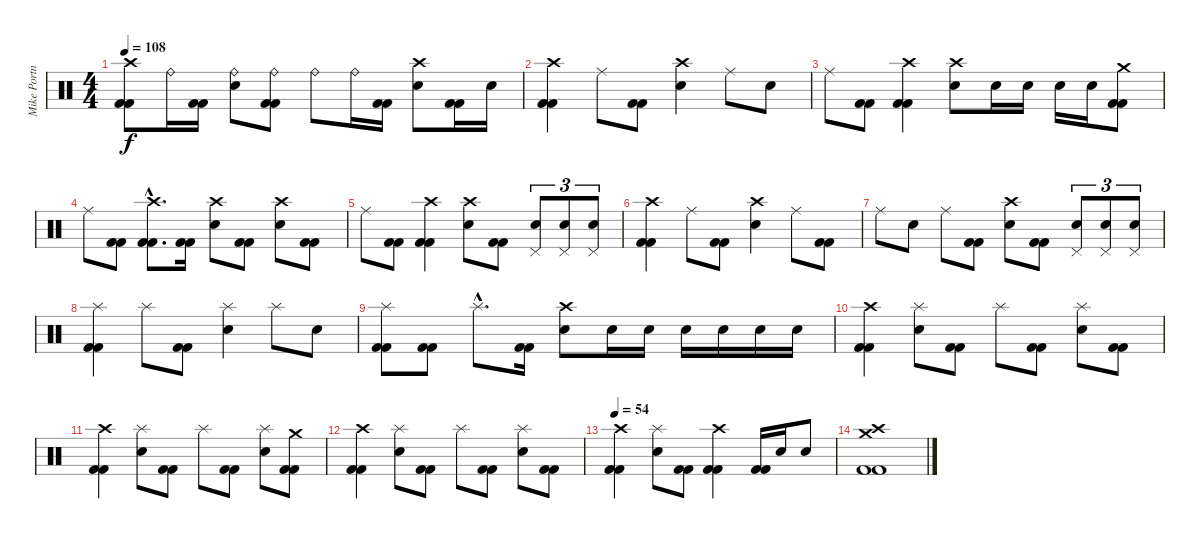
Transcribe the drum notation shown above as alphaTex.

\track ("Mike Portnoy - Drums" "Mike Portn") {instrument percussion}
\staff {score}
\articulation defaults
\ts (4 4)
\tempo 108
\clef neutral
\ks c
("Crash high (hit)" "Kick (hit) 2" "Kick (hit) 2").8{dy f} "Ride (bell)".16 ("Kick (hit) 2" "Kick (hit) 2").16 ("Ride (bell)" "Snare (hit) 2").8 ("Ride (bell)" "Kick (hit) 2" "Kick (hit) 2").8 "Ride (bell)".8 "Ride (bell)".16 ("Kick (hit) 2" "Kick (hit) 2").16 ("Crash high (hit)" "Snare (hit) 2").8 ("Kick (hit) 2" "Kick (hit) 2").16 "Snare (hit) 2".16 |
("Crash high (hit)" "Kick (hit) 2" "Kick (hit) 2").4 "Ride (middle)".8 ("Kick (hit) 2" "Kick (hit) 2").8 ("Crash high (hit)" "Snare (hit) 2").4 "Ride (middle)".8 "Snare (hit) 2".8 |
"Ride (middle)".8 ("Kick (hit) 2" "Kick (hit) 2").8 ("Crash high (hit)" "Kick (hit) 2" "Kick (hit) 2").4 ("Crash high (hit)" "Snare (hit) 2").8 "Snare (hit) 2".16 "Snare (hit) 2".16 "Snare (hit) 2".16 "Snare (hit) 2".16 ("Crash medium (hit)" "Kick (hit) 2" "Kick (hit) 2").8 |
"Ride (middle)".8 ("Kick (hit) 2" "Kick (hit) 2").8 ("Crash high (hit)"{hac} "Kick (hit) 2"{hac} "Kick (hit) 2"{hac}).8{d} ("Kick (hit) 2" "Kick (hit) 2").16 ("Crash high (hit)" "Snare (hit) 2").8 ("Kick (hit) 2" "Kick (hit) 2").8 ("Crash high (hit)" "Snare (hit) 2").8 ("Kick (hit) 2" "Kick (hit) 2").8 |
"Ride (middle)".8 ("Kick (hit) 2" "Kick (hit) 2").8 ("Crash high (hit)" "Kick (hit) 2" "Kick (hit) 2").4 ("Crash high (hit)" "Snare (hit) 2").8 ("Kick (hit) 2" "Kick (hit) 2").8 ("Pedal Hi-Hat (hit)" "Snare (hit) 2").8{tu (3 2)} ("Pedal Hi-Hat (hit)" "Snare (hit) 2").8{tu (3 2)} ("Pedal Hi-Hat (hit)" "Snare (hit) 2").8{tu (3 2)} |
("Crash high (hit)" "Kick (hit) 2" "Kick (hit) 2").4 "Ride (middle)".8 ("Kick (hit) 2" "Kick (hit) 2").8 ("Crash high (hit)" "Snare (hit) 2").4 "Ride (middle)".8 ("Kick (hit) 2" "Kick (hit) 2").8 |
"Ride (middle)".8 "Snare (hit) 2".8 "Ride (middle)".8 ("Kick (hit) 2" "Kick (hit) 2").8 ("Crash high (hit)" "Snare (hit) 2").8 ("Kick (hit) 2" "Kick (hit) 2").8 ("Pedal Hi-Hat (hit)" "Snare (hit) 2").8{tu (3 2)} ("Pedal Hi-Hat (hit)" "Snare (hit) 2").8{tu (3 2)} ("Pedal Hi-Hat (hit)" "Snare (hit) 2").8{tu (3 2)} |
("Splash (hit)" "Kick (hit) 2" "Kick (hit) 2").4 "Splash (hit)".8 ("Kick (hit) 2" "Kick (hit) 2").8 ("Splash (hit)" "Snare (hit) 2").4 "Splash (hit)".8 "Snare (hit) 2".8 |
("Splash (hit)" "Kick (hit) 2" "Kick (hit) 2").8 ("Kick (hit) 2" "Kick (hit) 2").8 "Splash (hit)"{hac}.8{d} ("Kick (hit) 2" "Kick (hit) 2").16 ("Crash high (hit)" "Snare (hit) 2").8 "Snare (hit) 2".16 "Snare (hit) 2".16 "Snare (hit) 2".16 "Snare (hit) 2".16 "Snare (hit) 2".16 "Snare (hit) 2".16 |
("Crash high (hit)" "Kick (hit) 2" "Kick (hit) 2").4 ("Splash (hit)" "Snare (hit) 2").8 ("Kick (hit) 2" "Kick (hit) 2").8 "Splash (hit)".8 ("Kick (hit) 2" "Kick (hit) 2").8 ("Splash (hit)" "Snare (hit) 2").8 ("Kick (hit) 2" "Kick (hit) 2").8 |
("Crash high (hit)" "Kick (hit) 2" "Kick (hit) 2").4 ("Splash (hit)" "Snare (hit) 2").8 ("Kick (hit) 2" "Kick (hit) 2").8 "Splash (hit)".8 ("Kick (hit) 2" "Kick (hit) 2").8 ("Splash (hit)" "Snare (hit) 2").8 ("Crash medium (hit)" "Kick (hit) 2" "Kick (hit) 2").8 |
("Crash high (hit)" "Kick (hit) 2" "Kick (hit) 2").4 ("Splash (hit)" "Snare (hit) 2").8 ("Kick (hit) 2" "Kick (hit) 2").8 "Splash (hit)".8 ("Kick (hit) 2" "Kick (hit) 2").8 ("Splash (hit)" "Snare (hit) 2").8 ("Kick (hit) 2" "Kick (hit) 2").8 |
\tempo 54
("Crash high (hit)" "Kick (hit) 2" "Kick (hit) 2").4 ("Splash (hit)" "Snare (hit) 2").8 ("Kick (hit) 2" "Kick (hit) 2").8 ("Crash high (hit)" "Kick (hit) 2" "Kick (hit) 2").4 ("Kick (hit) 2" "Kick (hit) 2").16 "Snare (hit) 2".16 "Snare (hit) 2".8 |
("Crash high (hit)" "Crash medium (hit)" "Kick (hit) 2" "Kick (hit) 2").1
